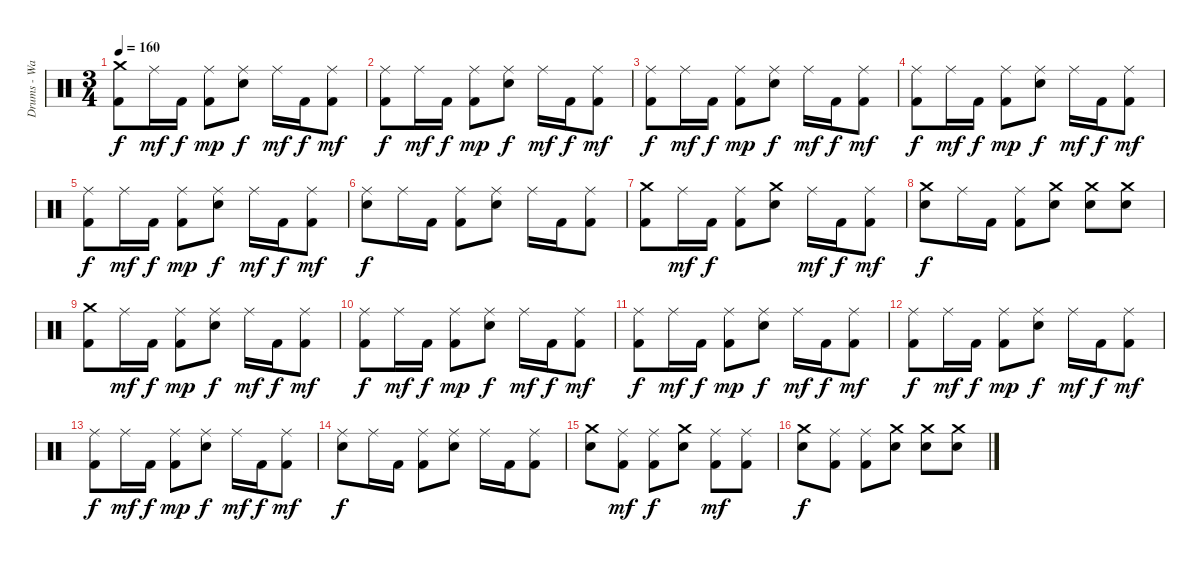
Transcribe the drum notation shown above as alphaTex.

\track ("Drums - Ward" "Drums - Wa") {instrument percussion}
\staff {score}
\articulation defaults
\ts (3 4)
\tempo 160
\clef neutral
\ks c
("Crash medium (hit)" "Kick (hit) 2").8{dy f} "Ride (middle)".16{dy mf} "Kick (hit) 2".16{dy f} ("Ride (middle)" "Kick (hit) 2").8{dy mp} ("Ride (middle)" "Electric Snare (hit)").8{dy f} "Ride (middle)".16{dy mf} "Kick (hit) 2".16{dy f} ("Ride (middle)" "Kick (hit) 2").8{dy mf} |
("Ride (middle)" "Kick (hit) 2").8{dy f} "Ride (middle)".16{dy mf} "Kick (hit) 2".16{dy f} ("Ride (middle)" "Kick (hit) 2").8{dy mp} ("Ride (middle)" "Electric Snare (hit)").8{dy f} "Ride (middle)".16{dy mf} "Kick (hit) 2".16{dy f} ("Ride (middle)" "Kick (hit) 2").8{dy mf} |
("Ride (middle)" "Kick (hit) 2").8{dy f} "Ride (middle)".16{dy mf} "Kick (hit) 2".16{dy f} ("Ride (middle)" "Kick (hit) 2").8{dy mp} ("Ride (middle)" "Electric Snare (hit)").8{dy f} "Ride (middle)".16{dy mf} "Kick (hit) 2".16{dy f} ("Ride (middle)" "Kick (hit) 2").8{dy mf} |
("Ride (middle)" "Kick (hit) 2").8{dy f} "Ride (middle)".16{dy mf} "Kick (hit) 2".16{dy f} ("Ride (middle)" "Kick (hit) 2").8{dy mp} ("Ride (middle)" "Electric Snare (hit)").8{dy f} "Ride (middle)".16{dy mf} "Kick (hit) 2".16{dy f} ("Ride (middle)" "Kick (hit) 2").8{dy mf} |
("Ride (middle)" "Kick (hit) 2").8{dy f} "Ride (middle)".16{dy mf} "Kick (hit) 2".16{dy f} ("Ride (middle)" "Kick (hit) 2").8{dy mp} ("Ride (middle)" "Electric Snare (hit)").8{dy f} "Ride (middle)".16{dy mf} "Kick (hit) 2".16{dy f} ("Ride (middle)" "Kick (hit) 2").8{dy mf} |
("Ride (middle)" "Electric Snare (hit)").8{dy f} "Ride (middle)".16 "Kick (hit) 2".16 ("Ride (middle)" "Kick (hit) 2").8 ("Ride (middle)" "Electric Snare (hit)").8 "Ride (middle)".16 "Kick (hit) 2".16 ("Ride (middle)" "Kick (hit) 2").8 |
("Crash medium (hit)" "Kick (hit) 2").8 "Ride (middle)".16{dy mf} "Kick (hit) 2".16{dy f} ("Ride (middle)" "Kick (hit) 2").8 ("Crash medium (hit)" "Electric Snare (hit)").8 "Ride (middle)".16{dy mf} "Kick (hit) 2".16{dy f} ("Ride (middle)" "Kick (hit) 2").8{dy mf} |
("Crash medium (hit)" "Electric Snare (hit)").8{dy f} "Ride (middle)".16 "Kick (hit) 2".16 ("Ride (middle)" "Kick (hit) 2").8 ("Crash medium (hit)" "Electric Snare (hit)").8 ("Crash medium (hit)" "Electric Snare (hit)").8 ("Crash medium (hit)" "Electric Snare (hit)").8 |
("Crash medium (hit)" "Kick (hit) 2").8 "Ride (middle)".16{dy mf} "Kick (hit) 2".16{dy f} ("Ride (middle)" "Kick (hit) 2").8{dy mp} ("Ride (middle)" "Electric Snare (hit)").8{dy f} "Ride (middle)".16{dy mf} "Kick (hit) 2".16{dy f} ("Ride (middle)" "Kick (hit) 2").8{dy mf} |
("Ride (middle)" "Kick (hit) 2").8{dy f} "Ride (middle)".16{dy mf} "Kick (hit) 2".16{dy f} ("Ride (middle)" "Kick (hit) 2").8{dy mp} ("Ride (middle)" "Electric Snare (hit)").8{dy f} "Ride (middle)".16{dy mf} "Kick (hit) 2".16{dy f} ("Ride (middle)" "Kick (hit) 2").8{dy mf} |
("Ride (middle)" "Kick (hit) 2").8{dy f} "Ride (middle)".16{dy mf} "Kick (hit) 2".16{dy f} ("Ride (middle)" "Kick (hit) 2").8{dy mp} ("Ride (middle)" "Electric Snare (hit)").8{dy f} "Ride (middle)".16{dy mf} "Kick (hit) 2".16{dy f} ("Ride (middle)" "Kick (hit) 2").8{dy mf} |
("Ride (middle)" "Kick (hit) 2").8{dy f} "Ride (middle)".16{dy mf} "Kick (hit) 2".16{dy f} ("Ride (middle)" "Kick (hit) 2").8{dy mp} ("Ride (middle)" "Electric Snare (hit)").8{dy f} "Ride (middle)".16{dy mf} "Kick (hit) 2".16{dy f} ("Ride (middle)" "Kick (hit) 2").8{dy mf} |
("Ride (middle)" "Kick (hit) 2").8{dy f} "Ride (middle)".16{dy mf} "Kick (hit) 2".16{dy f} ("Ride (middle)" "Kick (hit) 2").8{dy mp} ("Ride (middle)" "Electric Snare (hit)").8{dy f} "Ride (middle)".16{dy mf} "Kick (hit) 2".16{dy f} ("Ride (middle)" "Kick (hit) 2").8{dy mf} |
("Ride (middle)" "Electric Snare (hit)").8{dy f} "Ride (middle)".16 "Kick (hit) 2".16 ("Ride (middle)" "Kick (hit) 2").8 ("Ride (middle)" "Electric Snare (hit)").8 "Ride (middle)".16 "Kick (hit) 2".16 ("Ride (middle)" "Kick (hit) 2").8 |
("Crash medium (hit)" "Electric Snare (hit)").8 ("Ride (middle)" "Kick (hit) 2").8{dy mf} ("Ride (middle)" "Kick (hit) 2").8{dy f} ("Crash medium (hit)" "Electric Snare (hit)").8 ("Ride (middle)" "Kick (hit) 2").8{dy mf} ("Ride (middle)" "Kick (hit) 2").8 |
("Crash medium (hit)" "Electric Snare (hit)").8{dy f} ("Ride (middle)" "Kick (hit) 2").8 ("Ride (middle)" "Kick (hit) 2").8 ("Crash medium (hit)" "Electric Snare (hit)").8 ("Crash medium (hit)" "Electric Snare (hit)").8 ("Crash medium (hit)" "Electric Snare (hit)").8
